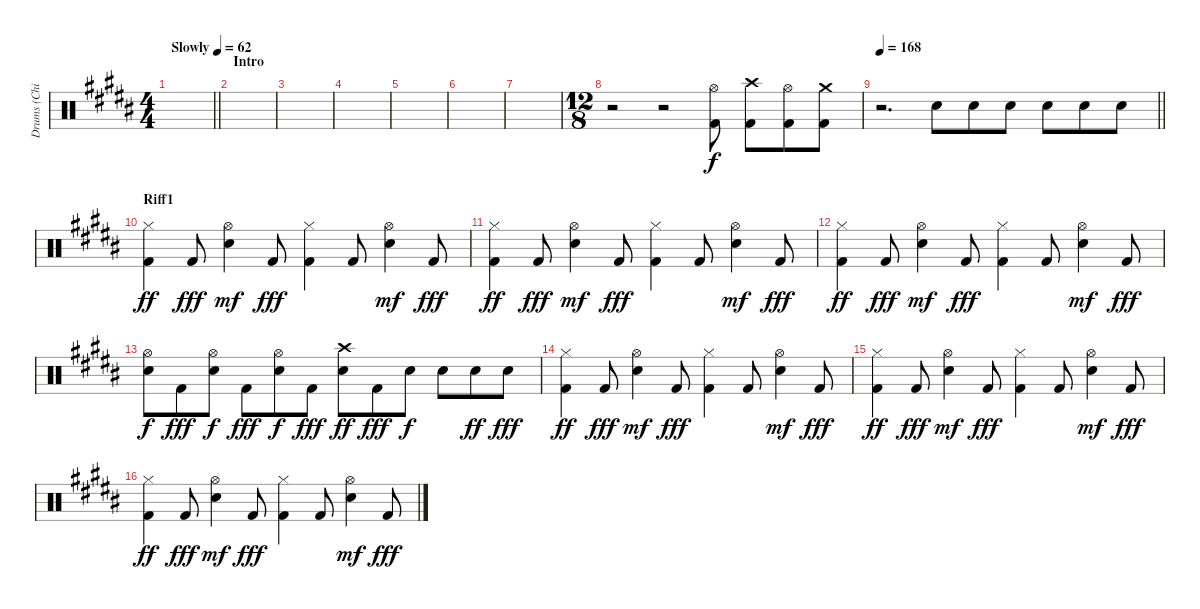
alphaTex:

\track ("Drums (Chinyakov)" "Drums (Chi") {instrument percussion}
\staff {score}
\articulation defaults
\ts (4 4)
\tempo (62 "Slowly")
\clef neutral
\barLineRight lightlight
\ks b
|
\section ("" "Intro")
|
|
|
|
|
|
\ts (12 8)
r.2 r.2 ("Kick (hit) 2" "Hi-Hat (open)").8 ("Kick (hit) 2" "Crash high (hit)").8 ("Kick (hit) 2" "Hi-Hat (open)").8 ("Kick (hit) 2" "Crash medium (hit)").8 |
\tempo 168
\barLineRight lightlight
r.2{d} "Electric Snare (hit)".8{dy f} "Electric Snare (hit)".8 "Electric Snare (hit)".8 "Electric Snare (hit)".8 "Electric Snare (hit)".8 "Electric Snare (hit)".8 |
\section ("" "Riff1")
("Kick (hit) 2" "Hi-Hat (closed)").4{dy ff} "Kick (hit) 2".8{dy fff} ("Electric Snare (hit)" "Hi-Hat (open)").4{dy mf} "Kick (hit) 2".8{dy fff} ("Kick (hit) 2" "Hi-Hat (closed)").4 "Kick (hit) 2".8 ("Electric Snare (hit)" "Hi-Hat (open)").4{dy mf} "Kick (hit) 2".8{dy fff} |
("Kick (hit) 2" "Hi-Hat (closed)").4{dy ff} "Kick (hit) 2".8{dy fff} ("Electric Snare (hit)" "Hi-Hat (open)").4{dy mf} "Kick (hit) 2".8{dy fff} ("Kick (hit) 2" "Hi-Hat (closed)").4 "Kick (hit) 2".8 ("Electric Snare (hit)" "Hi-Hat (open)").4{dy mf} "Kick (hit) 2".8{dy fff} |
("Kick (hit) 2" "Hi-Hat (closed)").4{dy ff} "Kick (hit) 2".8{dy fff} ("Electric Snare (hit)" "Hi-Hat (open)").4{dy mf} "Kick (hit) 2".8{dy fff} ("Kick (hit) 2" "Hi-Hat (closed)").4 "Kick (hit) 2".8 ("Electric Snare (hit)" "Hi-Hat (open)").4{dy mf} "Kick (hit) 2".8{dy fff} |
("Electric Snare (hit)" "Hi-Hat (open)").8{dy f} "Kick (hit) 2".8{dy fff} ("Electric Snare (hit)" "Hi-Hat (open)").8{dy f} "Kick (hit) 2".8{dy fff} ("Electric Snare (hit)" "Hi-Hat (open)").8{dy f} "Kick (hit) 2".8{dy fff} ("Electric Snare (hit)" "Crash high (hit)").8{dy ff} "Kick (hit) 2".8{dy fff} "Electric Snare (hit)".8{dy f} "Electric Snare (hit)".8 "Electric Snare (hit)".8{dy ff} "Electric Snare (hit)".8{dy fff} |
("Kick (hit) 2" "Hi-Hat (closed)").4{dy ff} "Kick (hit) 2".8{dy fff} ("Electric Snare (hit)" "Hi-Hat (open)").4{dy mf} "Kick (hit) 2".8{dy fff} ("Kick (hit) 2" "Hi-Hat (closed)").4 "Kick (hit) 2".8 ("Electric Snare (hit)" "Hi-Hat (open)").4{dy mf} "Kick (hit) 2".8{dy fff} |
("Kick (hit) 2" "Hi-Hat (closed)").4{dy ff} "Kick (hit) 2".8{dy fff} ("Electric Snare (hit)" "Hi-Hat (open)").4{dy mf} "Kick (hit) 2".8{dy fff} ("Kick (hit) 2" "Hi-Hat (closed)").4 "Kick (hit) 2".8 ("Electric Snare (hit)" "Hi-Hat (open)").4{dy mf} "Kick (hit) 2".8{dy fff} |
("Kick (hit) 2" "Hi-Hat (closed)").4{dy ff} "Kick (hit) 2".8{dy fff} ("Electric Snare (hit)" "Hi-Hat (open)").4{dy mf} "Kick (hit) 2".8{dy fff} ("Kick (hit) 2" "Hi-Hat (closed)").4 "Kick (hit) 2".8 ("Electric Snare (hit)" "Hi-Hat (open)").4{dy mf} "Kick (hit) 2".8{dy fff}
